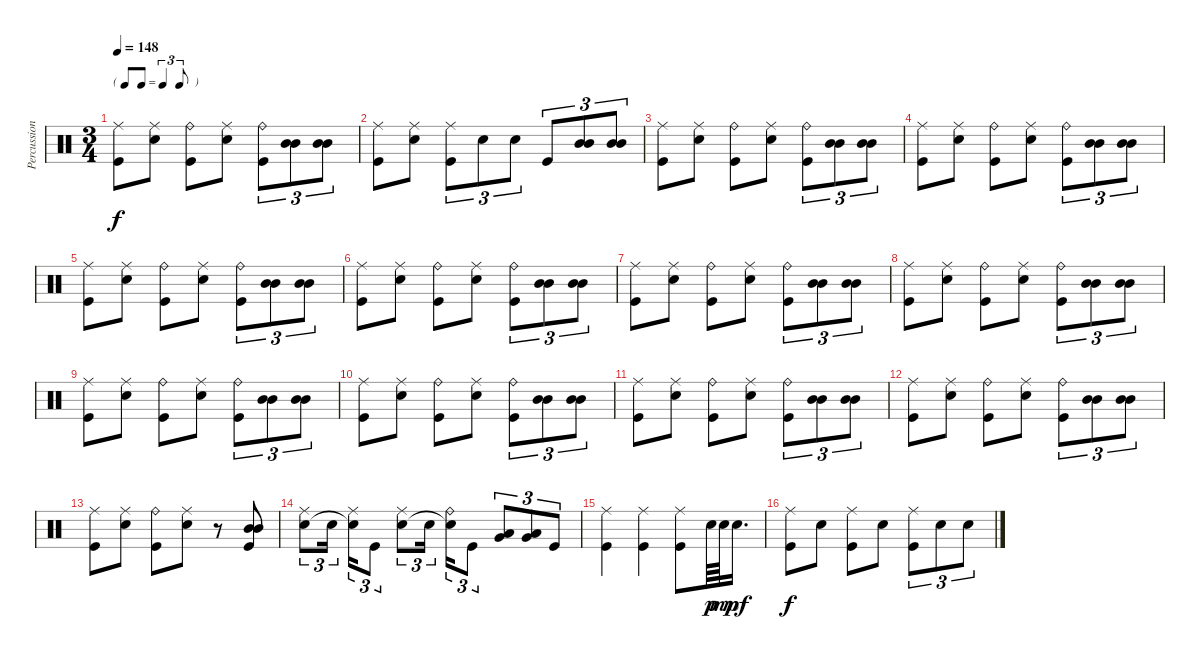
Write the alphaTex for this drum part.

\track ("Percussions" "Percussion") {instrument percussion}
\staff {score}
\articulation defaults
\ts (3 4)
\tf triplet8th
\tempo 148
\clef neutral
\ks c
("Ride (middle)" "Kick (hit)").8{dy f} ("Ride (middle)" "Electric Snare (hit)").8 ("Ride (bell)" "Kick (hit)").8 ("Ride (middle)" "Electric Snare (hit)").8 ("Ride (bell)" "Kick (hit)").8{tu (3 2)} ("Mid Tom (hit)" "Mid Tom (hit)").8{tu (3 2)} ("Mid Tom (hit)" "Mid Tom (hit)").8{tu (3 2)} |
("Ride (middle)" "Kick (hit)").8 ("Ride (middle)" "Electric Snare (hit)").8 ("Ride (middle)" "Kick (hit)").8{tu (3 2)} "Electric Snare (hit)".8{tu (3 2)} "Electric Snare (hit)".8{tu (3 2)} "Kick (hit)".8{tu (3 2)} ("Mid Tom (hit)" "Mid Tom (hit)").8{tu (3 2)} ("Mid Tom (hit)" "Mid Tom (hit)").8{tu (3 2)} |
("Ride (middle)" "Kick (hit)").8 ("Ride (middle)" "Electric Snare (hit)").8 ("Ride (bell)" "Kick (hit)").8 ("Ride (middle)" "Electric Snare (hit)").8 ("Ride (bell)" "Kick (hit)").8{tu (3 2)} ("Mid Tom (hit)" "Mid Tom (hit)").8{tu (3 2)} ("Mid Tom (hit)" "Mid Tom (hit)").8{tu (3 2)} |
("Ride (middle)" "Kick (hit)").8 ("Ride (middle)" "Electric Snare (hit)").8 ("Ride (bell)" "Kick (hit)").8 ("Ride (middle)" "Electric Snare (hit)").8 ("Ride (bell)" "Kick (hit)").8{tu (3 2)} ("Mid Tom (hit)" "Mid Tom (hit)").8{tu (3 2)} ("Mid Tom (hit)" "Mid Tom (hit)").8{tu (3 2)} |
("Ride (middle)" "Kick (hit)").8 ("Ride (middle)" "Electric Snare (hit)").8 ("Ride (bell)" "Kick (hit)").8 ("Ride (middle)" "Electric Snare (hit)").8 ("Ride (bell)" "Kick (hit)").8{tu (3 2)} ("Mid Tom (hit)" "Mid Tom (hit)").8{tu (3 2)} ("Mid Tom (hit)" "Mid Tom (hit)").8{tu (3 2)} |
("Ride (middle)" "Kick (hit)").8 ("Ride (middle)" "Electric Snare (hit)").8 ("Ride (bell)" "Kick (hit)").8 ("Ride (middle)" "Electric Snare (hit)").8 ("Ride (bell)" "Kick (hit)").8{tu (3 2)} ("Mid Tom (hit)" "Mid Tom (hit)").8{tu (3 2)} ("Mid Tom (hit)" "Mid Tom (hit)").8{tu (3 2)} |
("Ride (middle)" "Kick (hit)").8 ("Ride (middle)" "Electric Snare (hit)").8 ("Ride (bell)" "Kick (hit)").8 ("Ride (middle)" "Electric Snare (hit)").8 ("Ride (bell)" "Kick (hit)").8{tu (3 2)} ("Mid Tom (hit)" "Mid Tom (hit)").8{tu (3 2)} ("Mid Tom (hit)" "Mid Tom (hit)").8{tu (3 2)} |
("Ride (middle)" "Kick (hit)").8 ("Ride (middle)" "Electric Snare (hit)").8 ("Ride (bell)" "Kick (hit)").8 ("Ride (middle)" "Electric Snare (hit)").8 ("Ride (bell)" "Kick (hit)").8{tu (3 2)} ("Mid Tom (hit)" "Mid Tom (hit)").8{tu (3 2)} ("Mid Tom (hit)" "Mid Tom (hit)").8{tu (3 2)} |
("Ride (middle)" "Kick (hit)").8 ("Ride (middle)" "Electric Snare (hit)").8 ("Ride (bell)" "Kick (hit)").8 ("Ride (middle)" "Electric Snare (hit)").8 ("Ride (bell)" "Kick (hit)").8{tu (3 2)} ("Mid Tom (hit)" "Mid Tom (hit)").8{tu (3 2)} ("Mid Tom (hit)" "Mid Tom (hit)").8{tu (3 2)} |
("Ride (middle)" "Kick (hit)").8 ("Ride (middle)" "Electric Snare (hit)").8 ("Ride (bell)" "Kick (hit)").8 ("Ride (middle)" "Electric Snare (hit)").8 ("Ride (bell)" "Kick (hit)").8{tu (3 2)} ("Mid Tom (hit)" "Mid Tom (hit)").8{tu (3 2)} ("Mid Tom (hit)" "Mid Tom (hit)").8{tu (3 2)} |
("Ride (middle)" "Kick (hit)").8 ("Ride (middle)" "Electric Snare (hit)").8 ("Ride (bell)" "Kick (hit)").8 ("Ride (middle)" "Electric Snare (hit)").8 ("Ride (bell)" "Kick (hit)").8{tu (3 2)} ("Mid Tom (hit)" "Mid Tom (hit)").8{tu (3 2)} ("Mid Tom (hit)" "Mid Tom (hit)").8{tu (3 2)} |
("Ride (middle)" "Kick (hit)").8 ("Ride (middle)" "Electric Snare (hit)").8 ("Ride (bell)" "Kick (hit)").8 ("Ride (middle)" "Electric Snare (hit)").8 ("Ride (bell)" "Kick (hit)").8{tu (3 2)} ("Mid Tom (hit)" "Mid Tom (hit)").8{tu (3 2)} ("Mid Tom (hit)" "Mid Tom (hit)").8{tu (3 2)} |
("Ride (middle)" "Kick (hit)").8 ("Ride (middle)" "Electric Snare (hit)").8 ("Ride (bell)" "Kick (hit)").8 ("Ride (middle)" "Electric Snare (hit)").8 r.8 ("Mid Tom (hit)" "Mid Tom (hit)" "Kick (hit)").8 |
("Ride (middle)" "Electric Snare (hit)").8{tu (3 2)} "Electric Snare (hit)".16{tu (3 2)} ("Ride (middle)" "Snare (hit)"{t}).16{tu (3 2)} "Kick (hit)".8{tu (3 2)} ("Ride (middle)" "Electric Snare (hit)").8{tu (3 2)} "Electric Snare (hit)".16{tu (3 2)} ("Ride (bell)" "Snare (hit)"{t}).16{tu (3 2)} "Kick (hit)".8{tu (3 2)} ("Low Tom (hit)" "Very Low Tom (hit)").8{tu (3 2)} ("Low Tom (hit)" "Very Low Tom (hit)").8{tu (3 2)} "Kick (hit)".8{tu (3 2)} |
("Ride (middle)" "Kick (hit)").4 ("Ride (middle)" "Kick (hit)").4 ("Ride (middle)" "Kick (hit)").8 "Electric Snare (hit)".64{dy p} "Electric Snare (hit)".64{dy mp} "Electric Snare (hit)".16{d dy mf} |
("Ride (middle)" "Kick (hit)").8{dy f} "Electric Snare (hit)".8 ("Ride (middle)" "Kick (hit)").8 "Electric Snare (hit)".8 ("Ride (middle)" "Kick (hit)").8{tu (3 2)} "Electric Snare (hit)".8{tu (3 2)} "Electric Snare (hit)".8{tu (3 2)}
